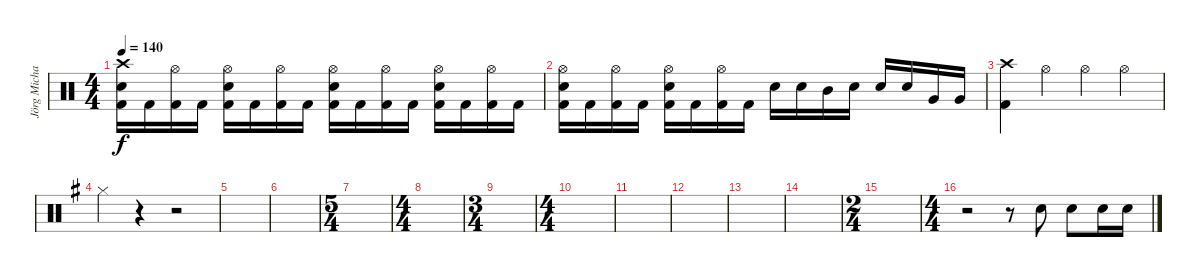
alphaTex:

\track ("Jörg Michael" "Jörg Micha") {instrument percussion}
\staff {score}
\articulation defaults
\ts (4 4)
\tempo 140
\clef neutral
\ks c
("Crash high (hit)" "Electric Snare (hit)" "Kick (hit) 2").16{dy f} "Kick (hit) 2".16 ("Hi-Hat (open)" "Kick (hit) 2").16 "Kick (hit) 2".16 ("Electric Snare (hit)" "Hi-Hat (open)" "Kick (hit) 2").16 "Kick (hit) 2".16 ("Hi-Hat (open)" "Kick (hit) 2").16 "Kick (hit) 2".16 ("Hi-Hat (open)" "Kick (hit) 2" "Electric Snare (hit)").16 "Kick (hit) 2".16 ("Hi-Hat (open)" "Kick (hit) 2").16 "Kick (hit) 2".16 ("Hi-Hat (open)" "Kick (hit) 2" "Electric Snare (hit)").16 "Kick (hit) 2".16 ("Hi-Hat (open)" "Kick (hit) 2").16 "Kick (hit) 2".16 |
("Hi-Hat (open)" "Kick (hit) 2" "Electric Snare (hit)").16 "Kick (hit) 2".16 ("Hi-Hat (open)" "Kick (hit) 2").16 "Kick (hit) 2".16 ("Hi-Hat (open)" "Kick (hit) 2" "Electric Snare (hit)").16 "Kick (hit) 2".16 ("Hi-Hat (open)" "Kick (hit) 2").16 "Kick (hit) 2".16 "Electric Snare (hit)".16 "Electric Snare (hit)".16 "Mid Tom (hit)".16 "Electric Snare (hit)".16 "Electric Snare (hit)".16 "Electric Snare (hit)".16 "Very Low Tom (hit)".16 "Very Low Tom (hit)".16 |
("Crash high (hit)" "Kick (hit) 2").4 "Hi-Hat (open)".4 "Hi-Hat (open)".4 "Hi-Hat (open)".4 |
\ks g "Hi-Hat (closed)".4
r.4 r.2 |
|
|
\ts (5 4)
|
\ts (4 4)
|
\ts (3 4)
|
\ts (4 4)
|
|
|
|
|
\ts (2 4)
|
\ts (4 4)
r.2 r.8 "Electric Snare (hit)".8 "Electric Snare (hit)".8 "Electric Snare (hit)".16 "Electric Snare (hit)".16
